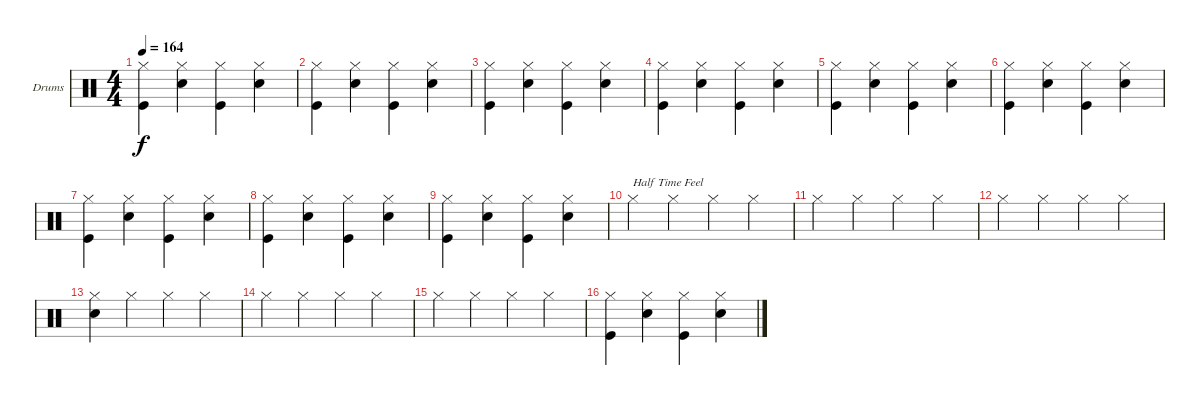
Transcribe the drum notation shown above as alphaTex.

\bracketExtendMode groupsimilarinstruments
\firstSystemTrackNameOrientation horizontal
\otherSystemsTrackNameOrientation horizontal
\track ("Drumkit" "Drums") {instrument percussion}
\staff {score}
\articulation defaults
\ts (4 4)
\tempo 164
\clef neutral
\ks c
("Hi-Hat (closed)" "Kick (hit)").4{dy f} ("Hi-Hat (closed)" "Snare (hit) 2").4 ("Hi-Hat (closed)" "Kick (hit)").4 ("Hi-Hat (closed)" "Snare (hit) 2").4 |
("Hi-Hat (closed)" "Kick (hit)").4 ("Hi-Hat (closed)" "Snare (hit) 2").4 ("Hi-Hat (closed)" "Kick (hit)").4 ("Hi-Hat (closed)" "Snare (hit) 2").4 |
("Hi-Hat (closed)" "Kick (hit)").4 ("Hi-Hat (closed)" "Snare (hit) 2").4 ("Hi-Hat (closed)" "Kick (hit)").4 ("Hi-Hat (closed)" "Snare (hit) 2").4 |
("Hi-Hat (closed)" "Kick (hit)").4 ("Hi-Hat (closed)" "Snare (hit) 2").4 ("Hi-Hat (closed)" "Kick (hit)").4 ("Hi-Hat (closed)" "Snare (hit) 2").4 |
("Hi-Hat (closed)" "Kick (hit)").4 ("Hi-Hat (closed)" "Snare (hit) 2").4 ("Hi-Hat (closed)" "Kick (hit)").4 ("Hi-Hat (closed)" "Snare (hit) 2").4 |
("Hi-Hat (closed)" "Kick (hit)").4 ("Hi-Hat (closed)" "Snare (hit) 2").4 ("Hi-Hat (closed)" "Kick (hit)").4 ("Hi-Hat (closed)" "Snare (hit) 2").4 |
("Hi-Hat (closed)" "Kick (hit)").4 ("Hi-Hat (closed)" "Snare (hit) 2").4 ("Hi-Hat (closed)" "Kick (hit)").4 ("Hi-Hat (closed)" "Snare (hit) 2").4 |
("Hi-Hat (closed)" "Kick (hit)").4 ("Hi-Hat (closed)" "Snare (hit) 2").4 ("Hi-Hat (closed)" "Kick (hit)").4 ("Hi-Hat (closed)" "Snare (hit) 2").4 |
("Hi-Hat (closed)" "Kick (hit)").4 ("Hi-Hat (closed)" "Snare (hit) 2").4 ("Hi-Hat (closed)" "Kick (hit)").4 ("Hi-Hat (closed)" "Snare (hit) 2").4 |
"Hi-Hat (closed)".4{txt "Half Time Feel"} "Hi-Hat (closed)".4 "Hi-Hat (closed)".4 "Hi-Hat (closed)".4 |
"Hi-Hat (closed)".4 "Hi-Hat (closed)".4 "Hi-Hat (closed)".4 "Hi-Hat (closed)".4 |
"Hi-Hat (closed)".4 "Hi-Hat (closed)".4 "Hi-Hat (closed)".4 "Hi-Hat (closed)".4 |
("Snare (hit) 2" "Hi-Hat (closed)").4 "Hi-Hat (closed)".4 "Hi-Hat (closed)".4 "Hi-Hat (closed)".4 |
"Hi-Hat (closed)".4 "Hi-Hat (closed)".4 "Hi-Hat (closed)".4 "Hi-Hat (closed)".4 |
"Hi-Hat (closed)".4 "Hi-Hat (closed)".4 "Hi-Hat (closed)".4 "Hi-Hat (closed)".4 |
("Hi-Hat (closed)" "Kick (hit)").4 ("Hi-Hat (closed)" "Snare (hit) 2").4 ("Hi-Hat (closed)" "Kick (hit)").4 ("Hi-Hat (closed)" "Snare (hit) 2").4
